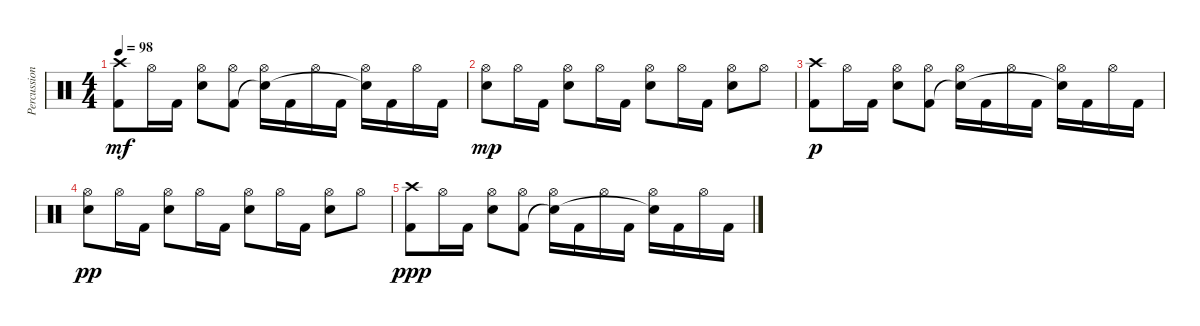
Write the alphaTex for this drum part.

\track ("Percussion" "Percussion") {instrument percussion}
\staff {score}
\articulation defaults
\ts (4 4)
\tempo 98
\clef neutral
\ks c
("Crash high (hit)" "Kick (hit) 2").8{dy mf} "Hi-Hat (open)".16 "Kick (hit) 2".16 ("Hi-Hat (open)" "Electric Snare (hit)").8 ("Hi-Hat (open)" "Kick (hit) 2").8 ("Hi-Hat (open)" "Snare (hit)"{t}).16 "Kick (hit) 2".16 "Hi-Hat (open)".16 "Kick (hit) 2".16 ("Hi-Hat (open)" "Snare (hit)"{t}).16 "Kick (hit) 2".16 "Hi-Hat (open)".16 "Kick (hit) 2".16 |
("Hi-Hat (open)" "Electric Snare (hit)").8{dy mp} "Hi-Hat (open)".16 "Kick (hit) 2".16 ("Hi-Hat (open)" "Electric Snare (hit)").8 "Hi-Hat (open)".16 "Kick (hit) 2".16 ("Hi-Hat (open)" "Electric Snare (hit)").8 "Hi-Hat (open)".16 "Kick (hit) 2".16 ("Hi-Hat (open)" "Electric Snare (hit)").8 "Hi-Hat (open)".8 |
("Crash high (hit)" "Kick (hit) 2").8{dy p} "Hi-Hat (open)".16 "Kick (hit) 2".16 ("Hi-Hat (open)" "Electric Snare (hit)").8 ("Hi-Hat (open)" "Kick (hit) 2").8 ("Hi-Hat (open)" "Snare (hit)"{t}).16 "Kick (hit) 2".16 "Hi-Hat (open)".16 "Kick (hit) 2".16 ("Hi-Hat (open)" "Snare (hit)"{t}).16 "Kick (hit) 2".16 "Hi-Hat (open)".16 "Kick (hit) 2".16 |
("Hi-Hat (open)" "Electric Snare (hit)").8{dy pp} "Hi-Hat (open)".16 "Kick (hit) 2".16 ("Hi-Hat (open)" "Electric Snare (hit)").8 "Hi-Hat (open)".16 "Kick (hit) 2".16 ("Hi-Hat (open)" "Electric Snare (hit)").8 "Hi-Hat (open)".16 "Kick (hit) 2".16 ("Hi-Hat (open)" "Electric Snare (hit)").8 "Hi-Hat (open)".8 |
("Crash high (hit)" "Kick (hit) 2").8{dy ppp} "Hi-Hat (open)".16 "Kick (hit) 2".16 ("Hi-Hat (open)" "Electric Snare (hit)").8 ("Hi-Hat (open)" "Kick (hit) 2").8 ("Hi-Hat (open)" "Snare (hit)"{t}).16 "Kick (hit) 2".16 "Hi-Hat (open)".16 "Kick (hit) 2".16 ("Hi-Hat (open)" "Snare (hit)"{t}).16 "Kick (hit) 2".16 "Hi-Hat (open)".16 "Kick (hit) 2".16
